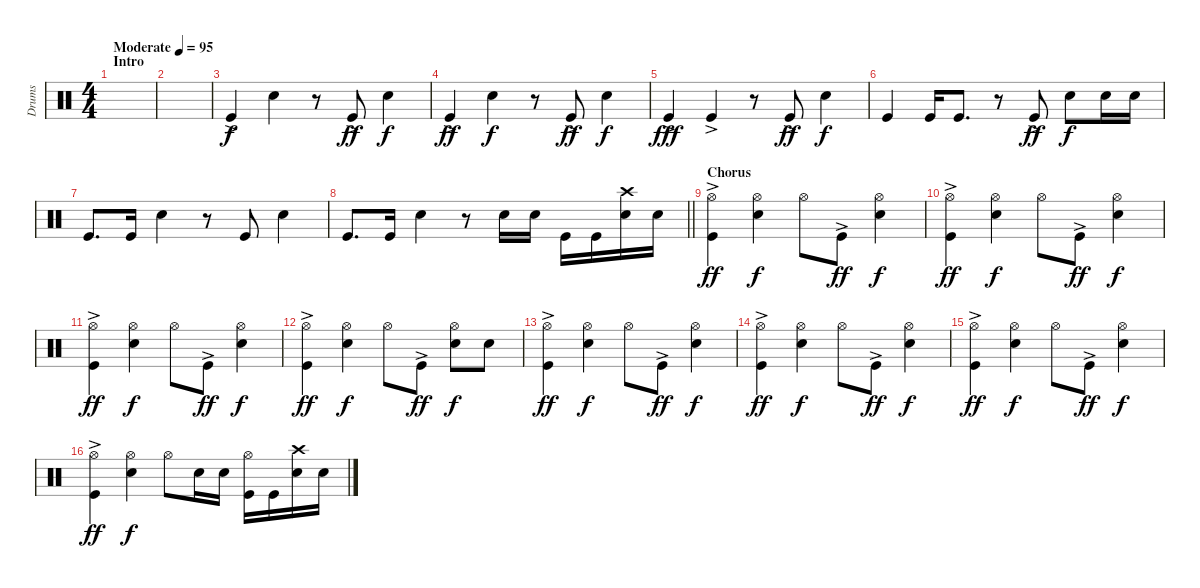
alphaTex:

\track ("Drums" "Drums") {instrument percussion}
\staff {score}
\articulation defaults
\ts (4 4)
\section ("" "Intro")
\tempo (95 "Moderate")
\clef neutral
\ks c
|
|
"Kick (hit)"{ac}.4 "Snare (hit) 2".4{dy f} r.8 "Kick (hit)"{ac}.8{dy ff} "Snare (hit) 2".4{dy f} |
"Kick (hit)"{ac}.4{dy ff} "Snare (hit) 2".4{dy f} r.8 "Kick (hit)"{ac}.8{dy ff} "Snare (hit) 2".4{dy f} |
"Kick (hit)"{ac}.4{dy fff} "Kick (hit)"{ac}.4 r.8 "Kick (hit)"{ac}.8{dy ff} "Snare (hit) 2".4{dy f} |
"Kick (hit)".4 "Kick (hit)".16 "Kick (hit)".8{d} r.8 "Kick (hit)"{ac}.8{dy ff} "Snare (hit) 2".8{dy f} "Snare (hit) 2".16 "Snare (hit) 2".16 |
"Kick (hit)".8{d} "Kick (hit)".16 "Snare (hit) 2".4 r.8 "Kick (hit)".8 "Snare (hit) 2".4 |
\barLineRight lightlight "Kick (hit)".8{d} "Kick (hit)".16 "Snare (hit) 2".4
r.8 "Snare (hit) 2".16 "Snare (hit) 2".16 "Kick (hit)".16 "Kick (hit)".16 ("Snare (hit) 2" "Crash high (hit)").16 "Snare (hit) 2".16 |
\section ("" "Chorus")
("Kick (hit)"{ac} "Hi-Hat (open)").4{dy ff volume 14} ("Snare (hit) 2" "Hi-Hat (open)").4{dy f} "Hi-Hat (open)".8 "Kick (hit)"{ac}.8{dy ff} ("Hi-Hat (open)" "Snare (hit) 2").4{dy f} |
("Kick (hit)"{ac} "Hi-Hat (open)").4{dy ff} ("Snare (hit) 2" "Hi-Hat (open)").4{dy f} "Hi-Hat (open)".8 "Kick (hit)"{ac}.8{dy ff} ("Hi-Hat (open)" "Snare (hit) 2").4{dy f} |
("Kick (hit)"{ac} "Hi-Hat (open)").4{dy ff} ("Snare (hit) 2" "Hi-Hat (open)").4{dy f} "Hi-Hat (open)".8 "Kick (hit)"{ac}.8{dy ff} ("Hi-Hat (open)" "Snare (hit) 2").4{dy f} |
("Kick (hit)"{ac} "Hi-Hat (open)").4{dy ff} ("Snare (hit) 2" "Hi-Hat (open)").4{dy f} "Hi-Hat (open)".8 "Kick (hit)"{ac}.8{dy ff} ("Hi-Hat (open)" "Snare (hit) 2").8{dy f} "Snare (hit) 2".8 |
("Kick (hit)"{ac} "Hi-Hat (open)").4{dy ff} ("Snare (hit) 2" "Hi-Hat (open)").4{dy f} "Hi-Hat (open)".8 "Kick (hit)"{ac}.8{dy ff} ("Hi-Hat (open)" "Snare (hit) 2").4{dy f} |
("Kick (hit)"{ac} "Hi-Hat (open)").4{dy ff} ("Snare (hit) 2" "Hi-Hat (open)").4{dy f} "Hi-Hat (open)".8 "Kick (hit)"{ac}.8{dy ff} ("Hi-Hat (open)" "Snare (hit) 2").4{dy f} |
("Kick (hit)"{ac} "Hi-Hat (open)").4{dy ff} ("Snare (hit) 2" "Hi-Hat (open)").4{dy f} "Hi-Hat (open)".8 "Kick (hit)"{ac}.8{dy ff} ("Hi-Hat (open)" "Snare (hit) 2").4{dy f} |
("Kick (hit)"{ac} "Hi-Hat (open)").4{dy ff} ("Snare (hit) 2" "Hi-Hat (open)").4{dy f} "Hi-Hat (open)".8 "Snare (hit) 2".16 "Snare (hit) 2".16 ("Kick (hit)" "Hi-Hat (open)").16 "Kick (hit)".16 ("Snare (hit) 2" "Crash high (hit)").16 "Snare (hit) 2".16
